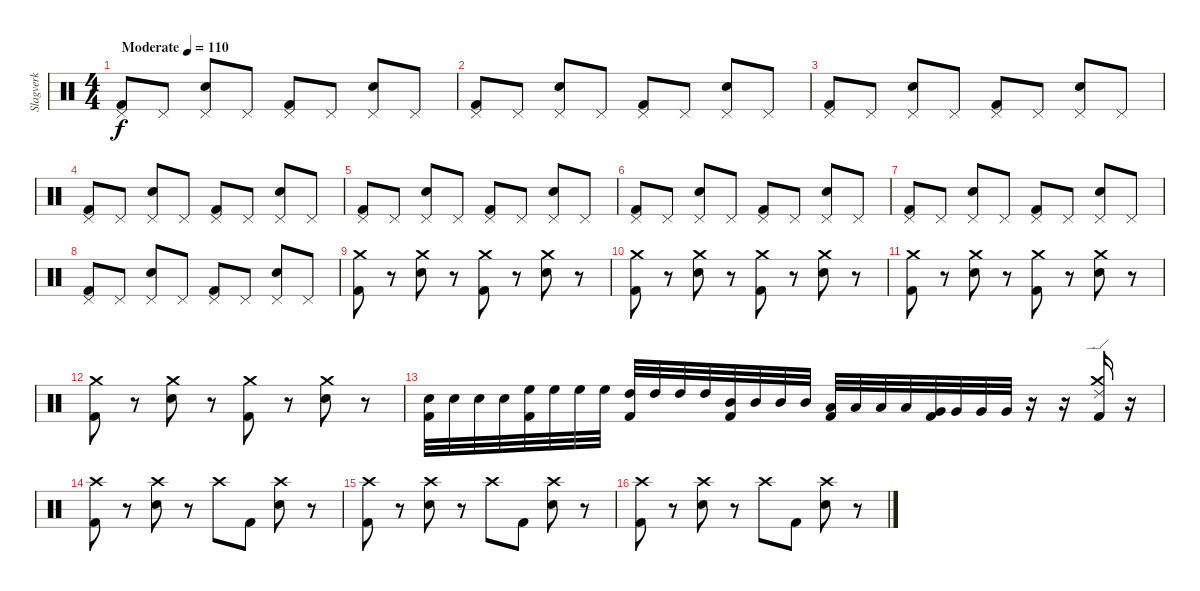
\track ("Slagverk" "Slagverk") {instrument percussion}
\staff {score}
\articulation defaults
\ts (4 4)
\tempo (110 "Moderate")
\clef neutral
\ks c
("Pedal Hi-Hat (hit)" "Kick (hit) 2").8{dy f} "Pedal Hi-Hat (hit)".8 ("Pedal Hi-Hat (hit)" "Electric Snare (hit)").8 "Pedal Hi-Hat (hit)".8 ("Pedal Hi-Hat (hit)" "Kick (hit) 2").8 "Pedal Hi-Hat (hit)".8 ("Pedal Hi-Hat (hit)" "Electric Snare (hit)").8 "Pedal Hi-Hat (hit)".8 |
("Pedal Hi-Hat (hit)" "Kick (hit) 2").8 "Pedal Hi-Hat (hit)".8 ("Pedal Hi-Hat (hit)" "Electric Snare (hit)").8 "Pedal Hi-Hat (hit)".8 ("Pedal Hi-Hat (hit)" "Kick (hit) 2").8 "Pedal Hi-Hat (hit)".8 ("Pedal Hi-Hat (hit)" "Electric Snare (hit)").8 "Pedal Hi-Hat (hit)".8 |
("Pedal Hi-Hat (hit)" "Kick (hit) 2").8 "Pedal Hi-Hat (hit)".8 ("Pedal Hi-Hat (hit)" "Electric Snare (hit)").8 "Pedal Hi-Hat (hit)".8 ("Pedal Hi-Hat (hit)" "Kick (hit) 2").8 "Pedal Hi-Hat (hit)".8 ("Pedal Hi-Hat (hit)" "Electric Snare (hit)").8 "Pedal Hi-Hat (hit)".8 |
("Pedal Hi-Hat (hit)" "Kick (hit) 2").8 "Pedal Hi-Hat (hit)".8 ("Pedal Hi-Hat (hit)" "Electric Snare (hit)").8 "Pedal Hi-Hat (hit)".8 ("Pedal Hi-Hat (hit)" "Kick (hit) 2").8 "Pedal Hi-Hat (hit)".8 ("Pedal Hi-Hat (hit)" "Electric Snare (hit)").8 "Pedal Hi-Hat (hit)".8 |
("Pedal Hi-Hat (hit)" "Kick (hit) 2").8 "Pedal Hi-Hat (hit)".8 ("Pedal Hi-Hat (hit)" "Electric Snare (hit)").8 "Pedal Hi-Hat (hit)".8 ("Pedal Hi-Hat (hit)" "Kick (hit) 2").8 "Pedal Hi-Hat (hit)".8 ("Pedal Hi-Hat (hit)" "Electric Snare (hit)").8 "Pedal Hi-Hat (hit)".8 |
("Pedal Hi-Hat (hit)" "Kick (hit) 2").8 "Pedal Hi-Hat (hit)".8 ("Pedal Hi-Hat (hit)" "Electric Snare (hit)").8 "Pedal Hi-Hat (hit)".8 ("Pedal Hi-Hat (hit)" "Kick (hit) 2").8 "Pedal Hi-Hat (hit)".8 ("Pedal Hi-Hat (hit)" "Electric Snare (hit)").8 "Pedal Hi-Hat (hit)".8 |
("Pedal Hi-Hat (hit)" "Kick (hit) 2").8 "Pedal Hi-Hat (hit)".8 ("Pedal Hi-Hat (hit)" "Electric Snare (hit)").8 "Pedal Hi-Hat (hit)".8 ("Pedal Hi-Hat (hit)" "Kick (hit) 2").8 "Pedal Hi-Hat (hit)".8 ("Pedal Hi-Hat (hit)" "Electric Snare (hit)").8 "Pedal Hi-Hat (hit)".8 |
("Pedal Hi-Hat (hit)" "Kick (hit) 2").8 "Pedal Hi-Hat (hit)".8 ("Pedal Hi-Hat (hit)" "Electric Snare (hit)").8 "Pedal Hi-Hat (hit)".8 ("Pedal Hi-Hat (hit)" "Kick (hit) 2").8 "Pedal Hi-Hat (hit)".8 ("Pedal Hi-Hat (hit)" "Electric Snare (hit)").8 "Pedal Hi-Hat (hit)".8 |
("Crash medium (hit)" "Kick (hit) 2").8 r.8 ("Crash medium (hit)" "Electric Snare (hit)").8 r.8 ("Crash medium (hit)" "Kick (hit) 2").8 r.8 ("Crash medium (hit)" "Electric Snare (hit)").8 r.8 |
("Crash medium (hit)" "Kick (hit) 2").8 r.8 ("Crash medium (hit)" "Electric Snare (hit)").8 r.8 ("Crash medium (hit)" "Kick (hit) 2").8 r.8 ("Crash medium (hit)" "Electric Snare (hit)").8 r.8 |
("Crash medium (hit)" "Kick (hit) 2").8 r.8 ("Crash medium (hit)" "Electric Snare (hit)").8 r.8 ("Crash medium (hit)" "Kick (hit) 2").8 r.8 ("Crash medium (hit)" "Electric Snare (hit)").8 r.8 |
("Crash medium (hit)" "Kick (hit) 2").8 r.8 ("Crash medium (hit)" "Electric Snare (hit)").8 r.8 ("Crash medium (hit)" "Kick (hit) 2").8 r.8 ("Crash medium (hit)" "Electric Snare (hit)").8 r.8 |
("Electric Snare (hit)" "Kick (hit) 2").32 "Electric Snare (hit)".32 "Electric Snare (hit)".32 "Electric Snare (hit)".32 ("High Floor Tom (hit)" "Kick (hit) 2").32 "High Floor Tom (hit)".32 "High Floor Tom (hit)".32 "High Floor Tom (hit)".32 ("High Tom (hit)" "Kick (hit) 2").32 "High Tom (hit)".32 "High Tom (hit)".32 "High Tom (hit)".32 ("Mid Tom (hit)" "Kick (hit) 2").32 "Mid Tom (hit)".32 "Mid Tom (hit)".32 "Mid Tom (hit)".32 ("Low Tom (hit)" "Kick (hit) 2").32 "Low Tom (hit)".32 "Low Tom (hit)".32 "Low Tom (hit)".32 ("Very Low Tom (hit)" "Kick (hit) 2").32 "Very Low Tom (hit)".32 "Very Low Tom (hit)".32 "Very Low Tom (hit)".32 r.16 r.16 ("Crash medium (hit)" "Ride (edge) 2" "Kick (hit) 2").16 r.16 |
("Crash high (hit)" "Kick (hit) 2").8 r.8 ("Crash high (hit)" "Electric Snare (hit)").8 r.8 "Crash high (hit)".8 "Kick (hit) 2".8 ("Crash high (hit)" "Electric Snare (hit)").8 r.8 |
("Crash high (hit)" "Kick (hit) 2").8 r.8 ("Crash high (hit)" "Electric Snare (hit)").8 r.8 "Crash high (hit)".8 "Kick (hit) 2".8 ("Crash high (hit)" "Electric Snare (hit)").8 r.8 |
("Crash high (hit)" "Kick (hit) 2").8 r.8 ("Crash high (hit)" "Electric Snare (hit)").8 r.8 "Crash high (hit)".8 "Kick (hit) 2".8 ("Crash high (hit)" "Electric Snare (hit)").8 r.8
